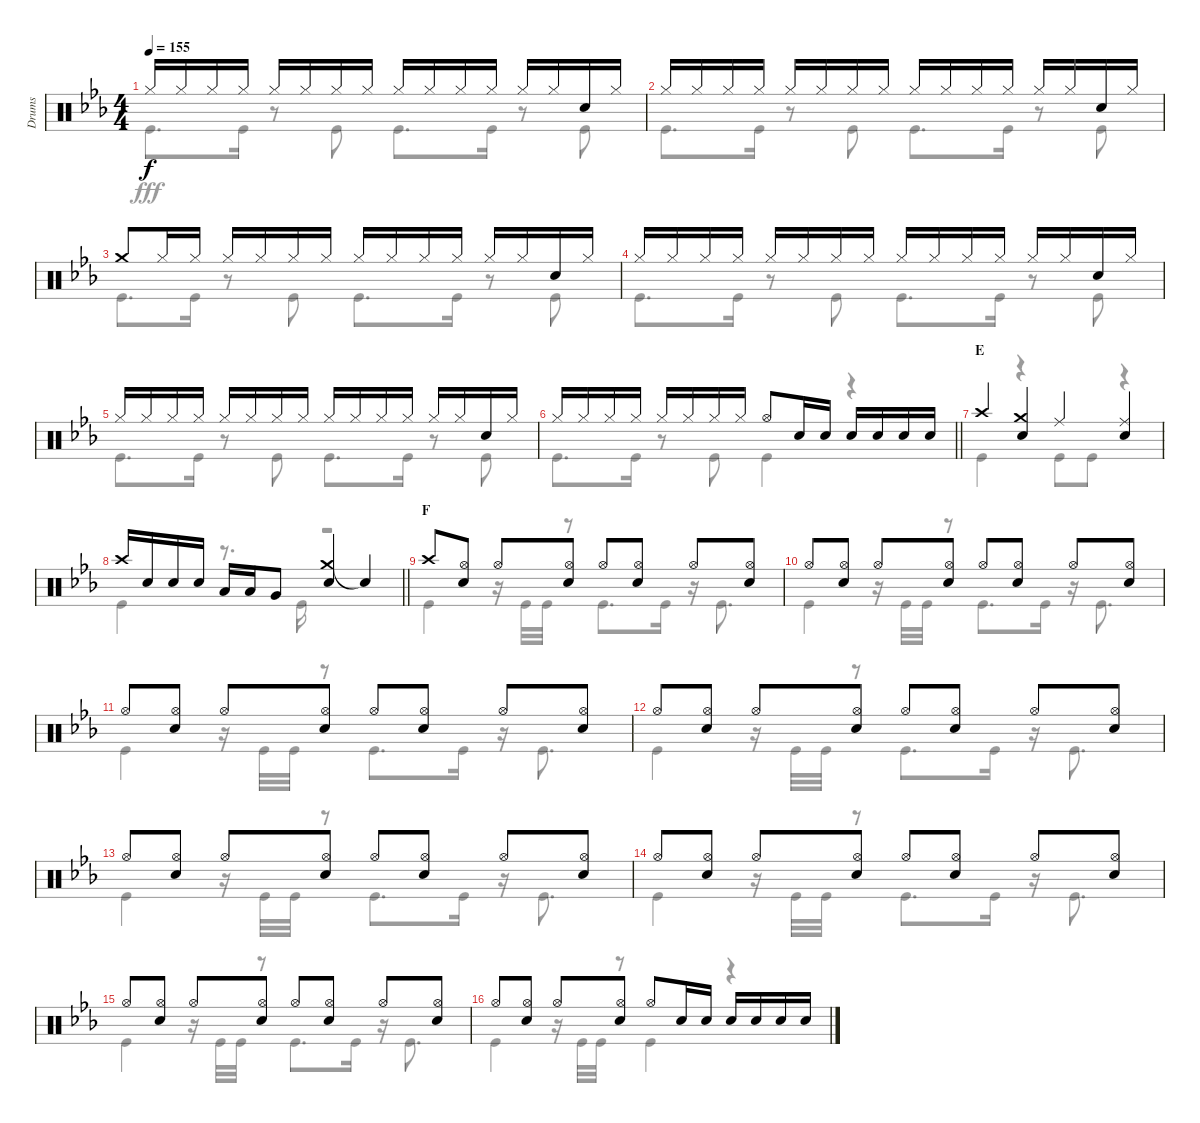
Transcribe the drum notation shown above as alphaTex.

\track ("Drums" "Drums") {instrument percussion}
\staff {score}
\articulation defaults
\voice
\ts (4 4)
\tempo 155
\clef neutral
\ks eb "Hi-Hat (closed)".16{dy f} "Hi-Hat (closed)".16 "Hi-Hat (closed)".16 "Hi-Hat (closed)".16 "Hi-Hat (closed)".16 "Hi-Hat (closed)".16 "Hi-Hat (closed)".16 "Hi-Hat (closed)".16 "Hi-Hat (closed)".16 "Hi-Hat (closed)".16 "Hi-Hat (closed)".16 "Hi-Hat (closed)".16 "Hi-Hat (closed)".16 "Hi-Hat (closed)".16 "Snare (hit) 2".16 "Hi-Hat (closed)".16
|
"Hi-Hat (closed)".16 "Hi-Hat (closed)".16 "Hi-Hat (closed)".16 "Hi-Hat (closed)".16 "Hi-Hat (closed)".16 "Hi-Hat (closed)".16 "Hi-Hat (closed)".16 "Hi-Hat (closed)".16 "Hi-Hat (closed)".16 "Hi-Hat (closed)".16 "Hi-Hat (closed)".16 "Hi-Hat (closed)".16 "Hi-Hat (closed)".16 "Hi-Hat (closed)".16 "Snare (hit) 2".16 "Hi-Hat (closed)".16 |
"Crash medium (hit)".8 "Hi-Hat (closed)".16 "Hi-Hat (closed)".16 "Hi-Hat (closed)".16 "Hi-Hat (closed)".16 "Hi-Hat (closed)".16 "Hi-Hat (closed)".16 "Hi-Hat (closed)".16 "Hi-Hat (closed)".16 "Hi-Hat (closed)".16 "Hi-Hat (closed)".16 "Hi-Hat (closed)".16 "Hi-Hat (closed)".16 "Snare (hit) 2".16 "Hi-Hat (closed)".16 |
"Hi-Hat (closed)".16 "Hi-Hat (closed)".16 "Hi-Hat (closed)".16 "Hi-Hat (closed)".16 "Hi-Hat (closed)".16 "Hi-Hat (closed)".16 "Hi-Hat (closed)".16 "Hi-Hat (closed)".16 "Hi-Hat (closed)".16 "Hi-Hat (closed)".16 "Hi-Hat (closed)".16 "Hi-Hat (closed)".16 "Hi-Hat (closed)".16 "Hi-Hat (closed)".16 "Snare (hit) 2".16 "Hi-Hat (closed)".16 |
"Hi-Hat (closed)".16 "Hi-Hat (closed)".16 "Hi-Hat (closed)".16 "Hi-Hat (closed)".16 "Hi-Hat (closed)".16 "Hi-Hat (closed)".16 "Hi-Hat (closed)".16 "Hi-Hat (closed)".16 "Hi-Hat (closed)".16 "Hi-Hat (closed)".16 "Hi-Hat (closed)".16 "Hi-Hat (closed)".16 "Hi-Hat (closed)".16 "Hi-Hat (closed)".16 "Snare (hit) 2".16 "Hi-Hat (closed)".16 |
\barLineRight lightlight "Hi-Hat (closed)".16 "Hi-Hat (closed)".16 "Hi-Hat (closed)".16 "Hi-Hat (closed)".16 "Hi-Hat (closed)".16 "Hi-Hat (closed)".16 "Hi-Hat (closed)".16 "Hi-Hat (closed)".16 "Hi-Hat (open)".8 "Snare (hit) 2".16 "Snare (hit) 2".16 "Snare (hit) 2".16 "Snare (hit) 2".16 "Snare (hit) 2".16 "Snare (hit) 2".16
|
\section ("" "E")
"Crash high (hit)".4 ("Crash medium (hit)" "Snare (hit) 2").4 "Ride (middle)".4 ("Ride (middle)" "Snare (hit) 2").4 |
\barLineRight lightlight "Crash high (hit)".16 "Snare (hit) 2".16 "Snare (hit) 2".16 "Snare (hit) 2".16 "Low Tom (hit)".16 "Low Tom (hit)".16 "Very Low Tom (hit)".8
("Crash medium (hit)" "Snare (hit) 2").4 "Snare (hit)"{t}.4 |
\section ("" "F")
"Crash high (hit)".8 ("Hi-Hat (open)" "Snare (hit) 2").8 "Hi-Hat (open)".8 ("Hi-Hat (open)" "Snare (hit) 2").8 "Hi-Hat (open)".8 ("Hi-Hat (open)" "Snare (hit) 2").8 "Hi-Hat (open)".8 ("Hi-Hat (open)" "Snare (hit) 2").8 |
"Hi-Hat (open)".8 ("Hi-Hat (open)" "Snare (hit) 2").8 "Hi-Hat (open)".8 ("Hi-Hat (open)" "Snare (hit) 2").8 "Hi-Hat (open)".8 ("Hi-Hat (open)" "Snare (hit) 2").8 "Hi-Hat (open)".8 ("Hi-Hat (open)" "Snare (hit) 2").8 |
"Hi-Hat (open)".8 ("Hi-Hat (open)" "Snare (hit) 2").8 "Hi-Hat (open)".8 ("Hi-Hat (open)" "Snare (hit) 2").8 "Hi-Hat (open)".8 ("Hi-Hat (open)" "Snare (hit) 2").8 "Hi-Hat (open)".8 ("Hi-Hat (open)" "Snare (hit) 2").8 |
"Hi-Hat (open)".8 ("Hi-Hat (open)" "Snare (hit) 2").8 "Hi-Hat (open)".8 ("Hi-Hat (open)" "Snare (hit) 2").8 "Hi-Hat (open)".8 ("Hi-Hat (open)" "Snare (hit) 2").8 "Hi-Hat (open)".8 ("Hi-Hat (open)" "Snare (hit) 2").8 |
"Hi-Hat (open)".8 ("Hi-Hat (open)" "Snare (hit) 2").8 "Hi-Hat (open)".8 ("Hi-Hat (open)" "Snare (hit) 2").8 "Hi-Hat (open)".8 ("Hi-Hat (open)" "Snare (hit) 2").8 "Hi-Hat (open)".8 ("Hi-Hat (open)" "Snare (hit) 2").8 |
"Hi-Hat (open)".8 ("Hi-Hat (open)" "Snare (hit) 2").8 "Hi-Hat (open)".8 ("Hi-Hat (open)" "Snare (hit) 2").8 "Hi-Hat (open)".8 ("Hi-Hat (open)" "Snare (hit) 2").8 "Hi-Hat (open)".8 ("Hi-Hat (open)" "Snare (hit) 2").8 |
"Hi-Hat (open)".8 ("Hi-Hat (open)" "Snare (hit) 2").8 "Hi-Hat (open)".8 ("Hi-Hat (open)" "Snare (hit) 2").8 "Hi-Hat (open)".8 ("Hi-Hat (open)" "Snare (hit) 2").8 "Hi-Hat (open)".8 ("Hi-Hat (open)" "Snare (hit) 2").8 |
"Hi-Hat (open)".8 ("Hi-Hat (open)" "Snare (hit) 2").8 "Hi-Hat (open)".8 ("Hi-Hat (open)" "Snare (hit) 2").8 "Hi-Hat (open)".8 "Snare (hit) 2".16 "Snare (hit) 2".16 "Snare (hit) 2".16 "Snare (hit) 2".16 "Snare (hit) 2".16 "Snare (hit) 2".16
\voice
\clef neutral
\ottava regular
\simile none
\ks eb "Kick (hit)".8{d dy fff} "Kick (hit)".16
r.8 "Kick (hit)".8 "Kick (hit)".8{d} "Kick (hit)".16 r.8 "Kick (hit)".8 |
"Kick (hit)".8{d} "Kick (hit)".16 r.8 "Kick (hit)".8 "Kick (hit)".8{d} "Kick (hit)".16 r.8 "Kick (hit)".8 |
"Kick (hit)".8{d} "Kick (hit)".16 r.8 "Kick (hit)".8 "Kick (hit)".8{d} "Kick (hit)".16 r.8 "Kick (hit)".8 |
"Kick (hit)".8{d} "Kick (hit)".16 r.8 "Kick (hit)".8 "Kick (hit)".8{d} "Kick (hit)".16 r.8 "Kick (hit)".8 |
"Kick (hit)".8{d} "Kick (hit)".16 r.8 "Kick (hit)".8 "Kick (hit)".8{d} "Kick (hit)".16 r.8 "Kick (hit)".8 |
\barLineRight lightlight "Kick (hit)".8{d} "Kick (hit)".16
r.8 "Kick (hit)".8 "Kick (hit)".4 r.4 |
"Kick (hit)".4 r.4 "Kick (hit)".8 "Kick (hit)".8 r.4 |
\barLineRight lightlight "Kick (hit)".4
r.8{d} "Kick (hit)".16 r.2 |
"Kick (hit)".4 r.16 "Kick (hit)".32 "Kick (hit)".32 r.8 "Kick (hit)".8{d} "Kick (hit)".16 r.16 "Kick (hit)".8{d} |
"Kick (hit)".4 r.16 "Kick (hit)".32 "Kick (hit)".32 r.8 "Kick (hit)".8{d} "Kick (hit)".16 r.16 "Kick (hit)".8{d} |
"Kick (hit)".4 r.16 "Kick (hit)".32 "Kick (hit)".32 r.8 "Kick (hit)".8{d} "Kick (hit)".16 r.16 "Kick (hit)".8{d} |
"Kick (hit)".4 r.16 "Kick (hit)".32 "Kick (hit)".32 r.8 "Kick (hit)".8{d} "Kick (hit)".16 r.16 "Kick (hit)".8{d} |
"Kick (hit)".4 r.16 "Kick (hit)".32 "Kick (hit)".32 r.8 "Kick (hit)".8{d} "Kick (hit)".16 r.16 "Kick (hit)".8{d} |
"Kick (hit)".4 r.16 "Kick (hit)".32 "Kick (hit)".32 r.8 "Kick (hit)".8{d} "Kick (hit)".16 r.16 "Kick (hit)".8{d} |
"Kick (hit)".4 r.16 "Kick (hit)".32 "Kick (hit)".32 r.8 "Kick (hit)".8{d} "Kick (hit)".16 r.16 "Kick (hit)".8{d} |
"Kick (hit)".4 r.16 "Kick (hit)".32 "Kick (hit)".32 r.8 "Kick (hit)".4 r.4
